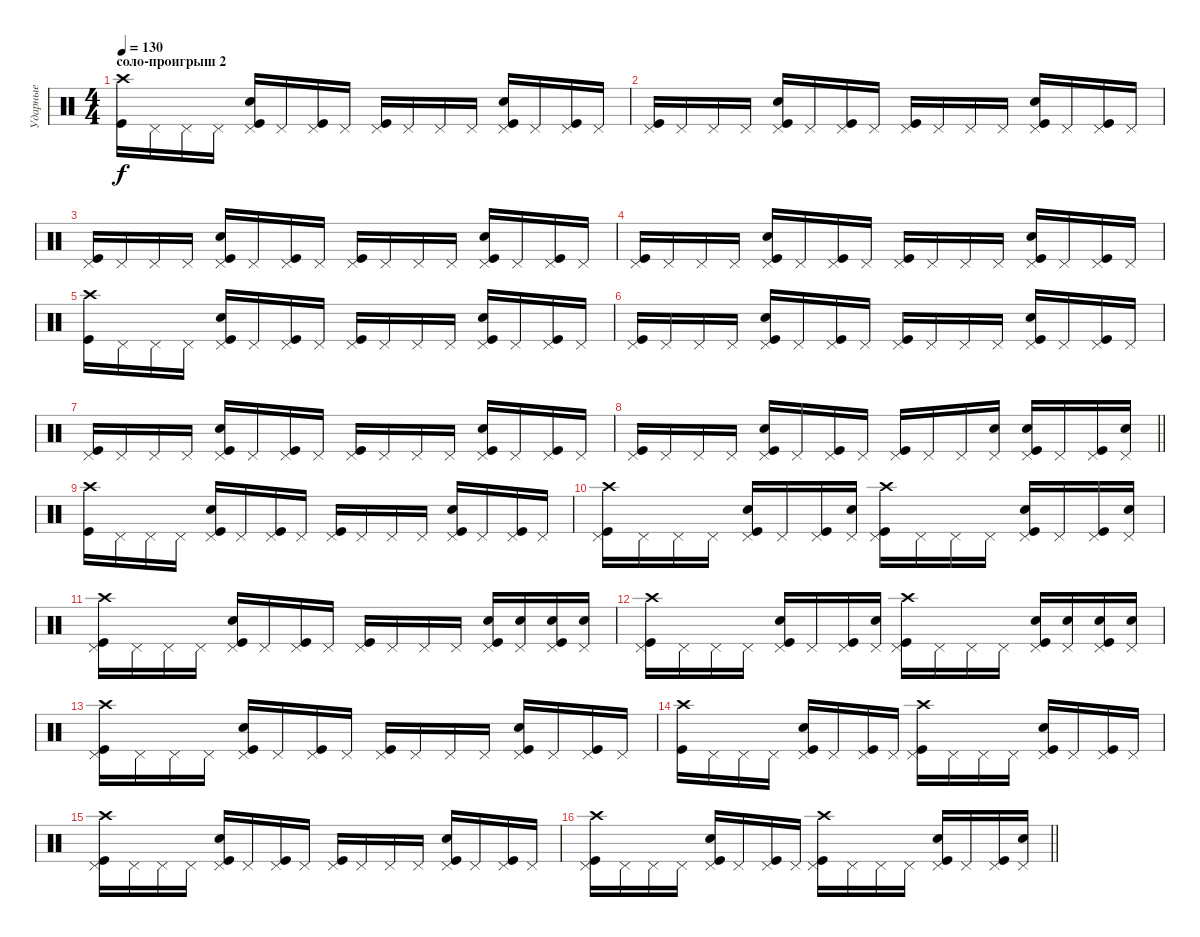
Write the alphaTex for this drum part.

\track ("Ударные" "Ударные") {instrument percussion}
\staff {score}
\articulation defaults
\ts (4 4)
\section ("" "соло-проигрыш 2")
\tempo 130
\clef neutral
\ks c
("Crash high (hit)" "Kick (hit)").16{dy f} "Pedal Hi-Hat (hit)".16 "Pedal Hi-Hat (hit)".16 "Pedal Hi-Hat (hit)".16 ("Pedal Hi-Hat (hit)" "Kick (hit)" "Snare (hit) 2").16 "Pedal Hi-Hat (hit)".16 ("Pedal Hi-Hat (hit)" "Kick (hit)").16 "Pedal Hi-Hat (hit)".16 ("Pedal Hi-Hat (hit)" "Kick (hit)").16 "Pedal Hi-Hat (hit)".16 "Pedal Hi-Hat (hit)".16 "Pedal Hi-Hat (hit)".16 ("Pedal Hi-Hat (hit)" "Kick (hit)" "Snare (hit) 2").16 "Pedal Hi-Hat (hit)".16 ("Pedal Hi-Hat (hit)" "Kick (hit)").16 "Pedal Hi-Hat (hit)".16 |
("Pedal Hi-Hat (hit)" "Kick (hit)").16 "Pedal Hi-Hat (hit)".16 "Pedal Hi-Hat (hit)".16 "Pedal Hi-Hat (hit)".16 ("Pedal Hi-Hat (hit)" "Kick (hit)" "Snare (hit) 2").16 "Pedal Hi-Hat (hit)".16 ("Pedal Hi-Hat (hit)" "Kick (hit)").16 "Pedal Hi-Hat (hit)".16 ("Pedal Hi-Hat (hit)" "Kick (hit)").16 "Pedal Hi-Hat (hit)".16 "Pedal Hi-Hat (hit)".16 "Pedal Hi-Hat (hit)".16 ("Pedal Hi-Hat (hit)" "Kick (hit)" "Snare (hit) 2").16 "Pedal Hi-Hat (hit)".16 ("Pedal Hi-Hat (hit)" "Kick (hit)").16 "Pedal Hi-Hat (hit)".16 |
("Pedal Hi-Hat (hit)" "Kick (hit)").16 "Pedal Hi-Hat (hit)".16 "Pedal Hi-Hat (hit)".16 "Pedal Hi-Hat (hit)".16 ("Pedal Hi-Hat (hit)" "Kick (hit)" "Snare (hit) 2").16 "Pedal Hi-Hat (hit)".16 ("Pedal Hi-Hat (hit)" "Kick (hit)").16 "Pedal Hi-Hat (hit)".16 ("Pedal Hi-Hat (hit)" "Kick (hit)").16 "Pedal Hi-Hat (hit)".16 "Pedal Hi-Hat (hit)".16 "Pedal Hi-Hat (hit)".16 ("Pedal Hi-Hat (hit)" "Kick (hit)" "Snare (hit) 2").16 "Pedal Hi-Hat (hit)".16 ("Pedal Hi-Hat (hit)" "Kick (hit)").16 "Pedal Hi-Hat (hit)".16 |
("Pedal Hi-Hat (hit)" "Kick (hit)").16 "Pedal Hi-Hat (hit)".16 "Pedal Hi-Hat (hit)".16 "Pedal Hi-Hat (hit)".16 ("Pedal Hi-Hat (hit)" "Kick (hit)" "Snare (hit) 2").16 "Pedal Hi-Hat (hit)".16 ("Pedal Hi-Hat (hit)" "Kick (hit)").16 "Pedal Hi-Hat (hit)".16 ("Pedal Hi-Hat (hit)" "Kick (hit)").16 "Pedal Hi-Hat (hit)".16 "Pedal Hi-Hat (hit)".16 "Pedal Hi-Hat (hit)".16 ("Pedal Hi-Hat (hit)" "Kick (hit)" "Snare (hit) 2").16 "Pedal Hi-Hat (hit)".16 ("Pedal Hi-Hat (hit)" "Kick (hit)").16 "Pedal Hi-Hat (hit)".16 |
("Crash high (hit)" "Kick (hit)").16 "Pedal Hi-Hat (hit)".16 "Pedal Hi-Hat (hit)".16 "Pedal Hi-Hat (hit)".16 ("Pedal Hi-Hat (hit)" "Kick (hit)" "Snare (hit) 2").16 "Pedal Hi-Hat (hit)".16 ("Pedal Hi-Hat (hit)" "Kick (hit)").16 "Pedal Hi-Hat (hit)".16 ("Pedal Hi-Hat (hit)" "Kick (hit)").16 "Pedal Hi-Hat (hit)".16 "Pedal Hi-Hat (hit)".16 "Pedal Hi-Hat (hit)".16 ("Pedal Hi-Hat (hit)" "Kick (hit)" "Snare (hit) 2").16 "Pedal Hi-Hat (hit)".16 ("Pedal Hi-Hat (hit)" "Kick (hit)").16 "Pedal Hi-Hat (hit)".16 |
("Pedal Hi-Hat (hit)" "Kick (hit)").16 "Pedal Hi-Hat (hit)".16 "Pedal Hi-Hat (hit)".16 "Pedal Hi-Hat (hit)".16 ("Pedal Hi-Hat (hit)" "Kick (hit)" "Snare (hit) 2").16 "Pedal Hi-Hat (hit)".16 ("Pedal Hi-Hat (hit)" "Kick (hit)").16 "Pedal Hi-Hat (hit)".16 ("Pedal Hi-Hat (hit)" "Kick (hit)").16 "Pedal Hi-Hat (hit)".16 "Pedal Hi-Hat (hit)".16 "Pedal Hi-Hat (hit)".16 ("Pedal Hi-Hat (hit)" "Kick (hit)" "Snare (hit) 2").16 "Pedal Hi-Hat (hit)".16 ("Pedal Hi-Hat (hit)" "Kick (hit)").16 "Pedal Hi-Hat (hit)".16 |
("Pedal Hi-Hat (hit)" "Kick (hit)").16 "Pedal Hi-Hat (hit)".16 "Pedal Hi-Hat (hit)".16 "Pedal Hi-Hat (hit)".16 ("Pedal Hi-Hat (hit)" "Kick (hit)" "Snare (hit) 2").16 "Pedal Hi-Hat (hit)".16 ("Pedal Hi-Hat (hit)" "Kick (hit)").16 "Pedal Hi-Hat (hit)".16 ("Pedal Hi-Hat (hit)" "Kick (hit)").16 "Pedal Hi-Hat (hit)".16 "Pedal Hi-Hat (hit)".16 "Pedal Hi-Hat (hit)".16 ("Pedal Hi-Hat (hit)" "Kick (hit)" "Snare (hit) 2").16 "Pedal Hi-Hat (hit)".16 ("Pedal Hi-Hat (hit)" "Kick (hit)").16 "Pedal Hi-Hat (hit)".16 |
\barLineRight lightlight
("Pedal Hi-Hat (hit)" "Kick (hit)").16 "Pedal Hi-Hat (hit)".16 "Pedal Hi-Hat (hit)".16 "Pedal Hi-Hat (hit)".16 ("Pedal Hi-Hat (hit)" "Kick (hit)" "Snare (hit) 2").16 "Pedal Hi-Hat (hit)".16 ("Pedal Hi-Hat (hit)" "Kick (hit)").16 "Pedal Hi-Hat (hit)".16 ("Pedal Hi-Hat (hit)" "Kick (hit)").16 "Pedal Hi-Hat (hit)".16 "Pedal Hi-Hat (hit)".16 ("Pedal Hi-Hat (hit)" "Snare (hit) 2").16 ("Pedal Hi-Hat (hit)" "Kick (hit)" "Snare (hit) 2").16 "Pedal Hi-Hat (hit)".16 ("Pedal Hi-Hat (hit)" "Kick (hit)").16 ("Pedal Hi-Hat (hit)" "Snare (hit) 2").16 |
("Crash high (hit)" "Kick (hit)").16 "Pedal Hi-Hat (hit)".16 "Pedal Hi-Hat (hit)".16 "Pedal Hi-Hat (hit)".16 ("Pedal Hi-Hat (hit)" "Kick (hit)" "Snare (hit) 2").16 "Pedal Hi-Hat (hit)".16 ("Pedal Hi-Hat (hit)" "Kick (hit)").16 "Pedal Hi-Hat (hit)".16 ("Pedal Hi-Hat (hit)" "Kick (hit)").16 "Pedal Hi-Hat (hit)".16 "Pedal Hi-Hat (hit)".16 "Pedal Hi-Hat (hit)".16 ("Pedal Hi-Hat (hit)" "Kick (hit)" "Snare (hit) 2").16 "Pedal Hi-Hat (hit)".16 ("Pedal Hi-Hat (hit)" "Kick (hit)").16 "Pedal Hi-Hat (hit)".16 |
("Pedal Hi-Hat (hit)" "Kick (hit)" "Crash high (hit)").16 "Pedal Hi-Hat (hit)".16 "Pedal Hi-Hat (hit)".16 "Pedal Hi-Hat (hit)".16 ("Pedal Hi-Hat (hit)" "Kick (hit)" "Snare (hit) 2").16 "Pedal Hi-Hat (hit)".16 ("Pedal Hi-Hat (hit)" "Kick (hit)").16 ("Pedal Hi-Hat (hit)" "Snare (hit) 2").16 ("Pedal Hi-Hat (hit)" "Kick (hit)" "Crash high (hit)").16 "Pedal Hi-Hat (hit)".16 "Pedal Hi-Hat (hit)".16 "Pedal Hi-Hat (hit)".16 ("Pedal Hi-Hat (hit)" "Kick (hit)" "Snare (hit) 2").16 "Pedal Hi-Hat (hit)".16 ("Pedal Hi-Hat (hit)" "Kick (hit)").16 ("Pedal Hi-Hat (hit)" "Snare (hit) 2").16 |
("Pedal Hi-Hat (hit)" "Kick (hit)" "Crash high (hit)").16 "Pedal Hi-Hat (hit)".16 "Pedal Hi-Hat (hit)".16 "Pedal Hi-Hat (hit)".16 ("Pedal Hi-Hat (hit)" "Kick (hit)" "Snare (hit) 2").16 "Pedal Hi-Hat (hit)".16 ("Pedal Hi-Hat (hit)" "Kick (hit)").16 "Pedal Hi-Hat (hit)".16 ("Pedal Hi-Hat (hit)" "Kick (hit)").16 "Pedal Hi-Hat (hit)".16 "Pedal Hi-Hat (hit)".16 "Pedal Hi-Hat (hit)".16 ("Pedal Hi-Hat (hit)" "Kick (hit)" "Snare (hit) 2").16 ("Pedal Hi-Hat (hit)" "Snare (hit) 2").16 ("Pedal Hi-Hat (hit)" "Kick (hit)" "Snare (hit) 2").16 ("Pedal Hi-Hat (hit)" "Snare (hit) 2").16 |
("Pedal Hi-Hat (hit)" "Kick (hit)" "Crash high (hit)").16 "Pedal Hi-Hat (hit)".16 "Pedal Hi-Hat (hit)".16 "Pedal Hi-Hat (hit)".16 ("Pedal Hi-Hat (hit)" "Kick (hit)" "Snare (hit) 2").16 "Pedal Hi-Hat (hit)".16 ("Pedal Hi-Hat (hit)" "Kick (hit)").16 ("Pedal Hi-Hat (hit)" "Snare (hit) 2").16 ("Pedal Hi-Hat (hit)" "Kick (hit)" "Crash high (hit)").16 "Pedal Hi-Hat (hit)".16 "Pedal Hi-Hat (hit)".16 "Pedal Hi-Hat (hit)".16 ("Pedal Hi-Hat (hit)" "Kick (hit)" "Snare (hit) 2").16 ("Pedal Hi-Hat (hit)" "Snare (hit) 2").16 ("Pedal Hi-Hat (hit)" "Kick (hit)" "Snare (hit) 2").16 ("Pedal Hi-Hat (hit)" "Snare (hit) 2").16 |
("Pedal Hi-Hat (hit)" "Kick (hit)" "Crash high (hit)").16 "Pedal Hi-Hat (hit)".16 "Pedal Hi-Hat (hit)".16 "Pedal Hi-Hat (hit)".16 ("Pedal Hi-Hat (hit)" "Kick (hit)" "Snare (hit) 2").16 "Pedal Hi-Hat (hit)".16 ("Pedal Hi-Hat (hit)" "Kick (hit)").16 "Pedal Hi-Hat (hit)".16 ("Pedal Hi-Hat (hit)" "Kick (hit)").16 "Pedal Hi-Hat (hit)".16 "Pedal Hi-Hat (hit)".16 "Pedal Hi-Hat (hit)".16 ("Pedal Hi-Hat (hit)" "Kick (hit)" "Snare (hit) 2").16 "Pedal Hi-Hat (hit)".16 ("Pedal Hi-Hat (hit)" "Kick (hit)").16 "Pedal Hi-Hat (hit)".16 |
("Crash high (hit)" "Kick (hit)").16 "Pedal Hi-Hat (hit)".16 "Pedal Hi-Hat (hit)".16 "Pedal Hi-Hat (hit)".16 ("Pedal Hi-Hat (hit)" "Kick (hit)" "Snare (hit) 2").16 "Pedal Hi-Hat (hit)".16 ("Pedal Hi-Hat (hit)" "Kick (hit)").16 "Pedal Hi-Hat (hit)".16 ("Pedal Hi-Hat (hit)" "Kick (hit)" "Crash high (hit)").16 "Pedal Hi-Hat (hit)".16 "Pedal Hi-Hat (hit)".16 "Pedal Hi-Hat (hit)".16 ("Pedal Hi-Hat (hit)" "Kick (hit)" "Snare (hit) 2").16 "Pedal Hi-Hat (hit)".16 ("Pedal Hi-Hat (hit)" "Kick (hit)").16 "Pedal Hi-Hat (hit)".16 |
("Pedal Hi-Hat (hit)" "Kick (hit)" "Crash high (hit)").16 "Pedal Hi-Hat (hit)".16 "Pedal Hi-Hat (hit)".16 "Pedal Hi-Hat (hit)".16 ("Pedal Hi-Hat (hit)" "Kick (hit)" "Snare (hit) 2").16 "Pedal Hi-Hat (hit)".16 ("Pedal Hi-Hat (hit)" "Kick (hit)").16 "Pedal Hi-Hat (hit)".16 ("Pedal Hi-Hat (hit)" "Kick (hit)").16 "Pedal Hi-Hat (hit)".16 "Pedal Hi-Hat (hit)".16 "Pedal Hi-Hat (hit)".16 ("Pedal Hi-Hat (hit)" "Kick (hit)" "Snare (hit) 2").16 "Pedal Hi-Hat (hit)".16 ("Pedal Hi-Hat (hit)" "Kick (hit)").16 "Pedal Hi-Hat (hit)".16 |
\barLineRight lightlight
("Pedal Hi-Hat (hit)" "Kick (hit)" "Crash high (hit)").16 "Pedal Hi-Hat (hit)".16 "Pedal Hi-Hat (hit)".16 "Pedal Hi-Hat (hit)".16 ("Pedal Hi-Hat (hit)" "Kick (hit)" "Snare (hit) 2").16 "Pedal Hi-Hat (hit)".16 ("Pedal Hi-Hat (hit)" "Kick (hit)").16 "Pedal Hi-Hat (hit)".16 ("Pedal Hi-Hat (hit)" "Kick (hit)" "Crash high (hit)").16 "Pedal Hi-Hat (hit)".16 "Pedal Hi-Hat (hit)".16 "Pedal Hi-Hat (hit)".16 ("Pedal Hi-Hat (hit)" "Kick (hit)" "Snare (hit) 2").16 "Pedal Hi-Hat (hit)".16 ("Pedal Hi-Hat (hit)" "Kick (hit)").16 ("Pedal Hi-Hat (hit)" "Snare (hit) 2").16
